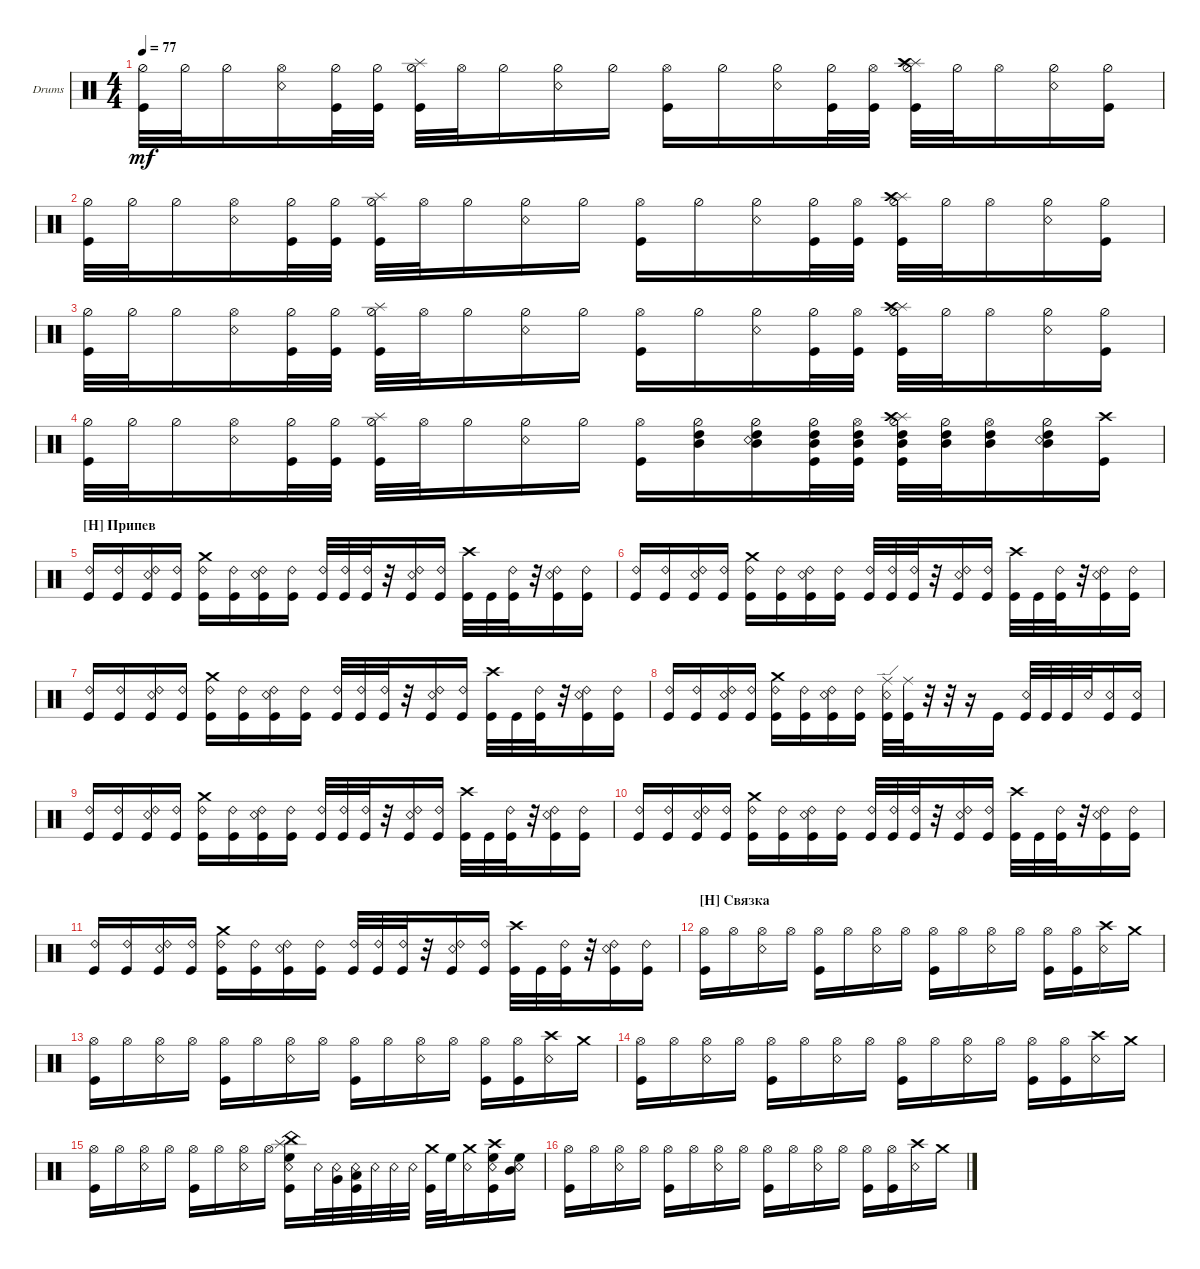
\bracketExtendMode groupsimilarinstruments
\firstSystemTrackNameOrientation horizontal
\otherSystemsTrackNameOrientation horizontal
\track ("Drumkit" "Drums") {instrument percussion}
\staff {score}
\articulation defaults
\ts (4 4)
\tempo 77
\clef neutral
\ks c
("Kick (hit)" "Hi-Hat (half)").32{dy mf} "Hi-Hat (half)".32 "Hi-Hat (half)".16 ("Snare (rim shot)" "Hi-Hat (open)").16 ("Kick (hit)" "Hi-Hat (half)").32 ("Kick (hit)" "Hi-Hat (half)").32 ("Kick (hit)" "Hi-Hat (half)" "Splash (hit)").32 "Hi-Hat (open)".32 "Hi-Hat (half)".16 ("Snare (rim shot)" "Hi-Hat (half)").16 "Hi-Hat (half)".16 ("Kick (hit)" "Hi-Hat (open)").16 "Hi-Hat (half)".16 ("Snare (rim shot)" "Hi-Hat (half)").16 ("Kick (hit)" "Hi-Hat (half)").32 ("Kick (hit)" "Hi-Hat (open)").32 ("Kick (hit)" "Hi-Hat (half)" "Splash (hit)" "Crash high (hit)").32 "Hi-Hat (half)".32 "Hi-Hat (open)".16 ("Snare (rim shot)" "Hi-Hat (half)").16 ("Kick (hit)" "Hi-Hat (half)").16 |
("Kick (hit)" "Hi-Hat (half)").32 "Hi-Hat (half)".32 "Hi-Hat (half)".16 ("Snare (rim shot)" "Hi-Hat (open)").16 ("Kick (hit)" "Hi-Hat (half)").32 ("Kick (hit)" "Hi-Hat (half)").32 ("Kick (hit)" "Hi-Hat (half)" "Splash (hit)").32 "Hi-Hat (open)".32 "Hi-Hat (half)".16 ("Snare (rim shot)" "Hi-Hat (half)").16 "Hi-Hat (half)".16 ("Kick (hit)" "Hi-Hat (open)").16 "Hi-Hat (half)".16 ("Snare (rim shot)" "Hi-Hat (half)").16 ("Kick (hit)" "Hi-Hat (half)").32 ("Kick (hit)" "Hi-Hat (open)").32 ("Kick (hit)" "Hi-Hat (half)" "Splash (hit)" "Crash high (hit)").32 "Hi-Hat (half)".32 "Hi-Hat (open)".16 ("Snare (rim shot)" "Hi-Hat (half)").16 ("Kick (hit)" "Hi-Hat (half)").16 |
("Kick (hit)" "Hi-Hat (half)").32 "Hi-Hat (half)".32 "Hi-Hat (half)".16 ("Snare (rim shot)" "Hi-Hat (open)").16 ("Kick (hit)" "Hi-Hat (half)").32 ("Kick (hit)" "Hi-Hat (half)").32 ("Kick (hit)" "Hi-Hat (half)" "Splash (hit)").32 "Hi-Hat (open)".32 "Hi-Hat (half)".16 ("Snare (rim shot)" "Hi-Hat (half)").16 "Hi-Hat (half)".16 ("Kick (hit)" "Hi-Hat (open)").16 "Hi-Hat (half)".16 ("Snare (rim shot)" "Hi-Hat (half)").16 ("Kick (hit)" "Hi-Hat (half)").32 ("Kick (hit)" "Hi-Hat (open)").32 ("Kick (hit)" "Hi-Hat (half)" "Splash (hit)" "Crash high (hit)").32 "Hi-Hat (half)".32 "Hi-Hat (open)".16 ("Snare (rim shot)" "Hi-Hat (half)").16 ("Kick (hit)" "Hi-Hat (half)").16 |
("Kick (hit)" "Hi-Hat (half)").32 "Hi-Hat (half)".32 "Hi-Hat (half)".16 ("Snare (rim shot)" "Hi-Hat (open)").16 ("Kick (hit)" "Hi-Hat (half)").32 ("Kick (hit)" "Hi-Hat (half)").32 ("Kick (hit)" "Hi-Hat (half)" "Splash (hit)").32 "Hi-Hat (open)".32 "Hi-Hat (half)".16 ("Snare (rim shot)" "Hi-Hat (half)").16 "Hi-Hat (half)".16 ("Kick (hit)" "Hi-Hat (open)").16 ("Hi-Hat (half)" "Mid Tom (hit)" "High Tom (hit)").16 ("Snare (rim shot)" "Hi-Hat (half)" "Mid Tom (hit)" "High Tom (hit)").16 ("Kick (hit)" "Hi-Hat (half)" "Mid Tom (hit)" "High Tom (hit)").32 ("Kick (hit)" "Hi-Hat (open)" "Mid Tom (hit)" "High Tom (hit)").32 ("Kick (hit)" "Hi-Hat (half)" "Splash (hit)" "Crash high (hit)" "Mid Tom (hit)" "High Tom (hit)").32 ("Hi-Hat (half)" "Mid Tom (hit)" "High Tom (hit)").32 ("Hi-Hat (open)" "Mid Tom (hit)" "High Tom (hit)").16 ("Snare (rim shot)" "Hi-Hat (half)" "Mid Tom (hit)" "High Tom (hit)").16 ("Kick (hit)" "Crash high (hit)").16 |
\section ("H" "Припев")
("Kick (hit)" "Ride (bell) 2").16 ("Kick (hit)" "Ride (bell) 2").16 ("Snare (rim shot)" "Kick (hit)" "Ride (bell) 2").16 ("Kick (hit)" "Ride (bell) 2").16 ("Kick (hit)" "Ride (bell) 2" "Crash medium (hit)").16 ("Kick (hit)" "Ride (bell) 2").16 ("Snare (rim shot)" "Kick (hit)" "Ride (bell) 2").16 ("Kick (hit)" "Ride (bell) 2").16 ("Kick (hit)" "Ride (bell) 2").32 ("Kick (hit)" "Ride (bell) 2").32 ("Kick (hit)" "Ride (bell) 2").32 r.32 ("Snare (rim shot)" "Kick (hit)" "Ride (bell) 2").16 ("Kick (hit)" "Ride (bell) 2").16 ("Kick (hit)" "Crash high (hit)").32 "Kick (hit)".32 ("Kick (hit)" "Ride (bell) 2").32 r.32 ("Snare (rim shot)" "Kick (hit)" "Ride (bell) 2").16 ("Kick (hit)" "Ride (bell) 2").16 |
("Kick (hit)" "Ride (bell) 2").16 ("Kick (hit)" "Ride (bell) 2").16 ("Snare (rim shot)" "Kick (hit)" "Ride (bell) 2").16 ("Kick (hit)" "Ride (bell) 2").16 ("Kick (hit)" "Ride (bell) 2" "Crash medium (hit)").16 ("Kick (hit)" "Ride (bell) 2").16 ("Snare (rim shot)" "Kick (hit)" "Ride (bell) 2").16 ("Kick (hit)" "Ride (bell) 2").16 ("Kick (hit)" "Ride (bell) 2").32 ("Kick (hit)" "Ride (bell) 2").32 ("Kick (hit)" "Ride (bell) 2").32 r.32 ("Snare (rim shot)" "Kick (hit)" "Ride (bell) 2").16 ("Kick (hit)" "Ride (bell) 2").16 ("Kick (hit)" "Crash high (hit)").32 "Kick (hit)".32 ("Kick (hit)" "Ride (bell) 2").32 r.32 ("Snare (rim shot)" "Kick (hit)" "Ride (bell) 2").16 ("Kick (hit)" "Ride (bell) 2").16 |
("Kick (hit)" "Ride (bell) 2").16 ("Kick (hit)" "Ride (bell) 2").16 ("Snare (rim shot)" "Kick (hit)" "Ride (bell) 2").16 ("Kick (hit)" "Ride (bell) 2").16 ("Kick (hit)" "Ride (bell) 2" "Crash medium (hit)").16 ("Kick (hit)" "Ride (bell) 2").16 ("Snare (rim shot)" "Kick (hit)" "Ride (bell) 2").16 ("Kick (hit)" "Ride (bell) 2").16 ("Kick (hit)" "Ride (bell) 2").32 ("Kick (hit)" "Ride (bell) 2").32 ("Kick (hit)" "Ride (bell) 2").32 r.32 ("Snare (rim shot)" "Kick (hit)" "Ride (bell) 2").16 ("Kick (hit)" "Ride (bell) 2").16 ("Kick (hit)" "Crash high (hit)").32 "Kick (hit)".32 ("Kick (hit)" "Ride (bell) 2").32 r.32 ("Snare (rim shot)" "Kick (hit)" "Ride (bell) 2").16 ("Kick (hit)" "Ride (bell) 2").16 |
("Kick (hit)" "Ride (bell) 2").16 ("Kick (hit)" "Ride (bell) 2").16 ("Snare (rim shot)" "Kick (hit)" "Ride (bell) 2").16 ("Kick (hit)" "Ride (bell) 2").16 ("Kick (hit)" "Ride (bell) 2" "Crash medium (hit)").16 ("Kick (hit)" "Ride (bell) 2").16 ("Snare (rim shot)" "Kick (hit)" "Ride (bell) 2").16 ("Kick (hit)" "Ride (bell) 2").16 ("Kick (hit)" "Ride (edge)" "Snare (rim shot)").32 ("Kick (hit)" "Ride (middle)").32 r.32 r.32 r.16 "Kick (hit)".16 ("Kick (hit)" "Snare (rim shot)").32 "Kick (hit)".32 "Kick (hit)".32 "Snare (rim shot)".32 ("Snare (rim shot)" "Kick (hit)").16 ("Kick (hit)" "Snare (rim shot)").16 |
("Kick (hit)" "Ride (bell) 2").16 ("Kick (hit)" "Ride (bell) 2").16 ("Snare (rim shot)" "Kick (hit)" "Ride (bell) 2").16 ("Kick (hit)" "Ride (bell) 2").16 ("Kick (hit)" "Ride (bell) 2" "Crash medium (hit)").16 ("Kick (hit)" "Ride (bell) 2").16 ("Snare (rim shot)" "Kick (hit)" "Ride (bell) 2").16 ("Kick (hit)" "Ride (bell) 2").16 ("Kick (hit)" "Ride (bell) 2").32 ("Kick (hit)" "Ride (bell) 2").32 ("Kick (hit)" "Ride (bell) 2").32 r.32 ("Snare (rim shot)" "Kick (hit)" "Ride (bell) 2").16 ("Kick (hit)" "Ride (bell) 2").16 ("Kick (hit)" "Crash high (hit)").32 "Kick (hit)".32 ("Kick (hit)" "Ride (bell) 2").32 r.32 ("Snare (rim shot)" "Kick (hit)" "Ride (bell) 2").16 ("Kick (hit)" "Ride (bell) 2").16 |
("Kick (hit)" "Ride (bell) 2").16 ("Kick (hit)" "Ride (bell) 2").16 ("Snare (rim shot)" "Kick (hit)" "Ride (bell) 2").16 ("Kick (hit)" "Ride (bell) 2").16 ("Kick (hit)" "Ride (bell) 2" "Crash medium (hit)").16 ("Kick (hit)" "Ride (bell) 2").16 ("Snare (rim shot)" "Kick (hit)" "Ride (bell) 2").16 ("Kick (hit)" "Ride (bell) 2").16 ("Kick (hit)" "Ride (bell) 2").32 ("Kick (hit)" "Ride (bell) 2").32 ("Kick (hit)" "Ride (bell) 2").32 r.32 ("Snare (rim shot)" "Kick (hit)" "Ride (bell) 2").16 ("Kick (hit)" "Ride (bell) 2").16 ("Kick (hit)" "Crash high (hit)").32 "Kick (hit)".32 ("Kick (hit)" "Ride (bell) 2").32 r.32 ("Snare (rim shot)" "Kick (hit)" "Ride (bell) 2").16 ("Kick (hit)" "Ride (bell) 2").16 |
("Kick (hit)" "Ride (bell) 2").16 ("Kick (hit)" "Ride (bell) 2").16 ("Snare (rim shot)" "Kick (hit)" "Ride (bell) 2").16 ("Kick (hit)" "Ride (bell) 2").16 ("Kick (hit)" "Ride (bell) 2" "Crash medium (hit)").16 ("Kick (hit)" "Ride (bell) 2").16 ("Snare (rim shot)" "Kick (hit)" "Ride (bell) 2").16 ("Kick (hit)" "Ride (bell) 2").16 ("Kick (hit)" "Ride (bell) 2").32 ("Kick (hit)" "Ride (bell) 2").32 ("Kick (hit)" "Ride (bell) 2").32 r.32 ("Snare (rim shot)" "Kick (hit)" "Ride (bell) 2").16 ("Kick (hit)" "Ride (bell) 2").16 ("Kick (hit)" "Crash high (hit)").32 "Kick (hit)".32 ("Kick (hit)" "Ride (bell) 2").32 r.32 ("Snare (rim shot)" "Kick (hit)" "Ride (bell) 2").16 ("Kick (hit)" "Ride (bell) 2").16 |
\section ("H" "Связка")
("Kick (hit)" "Hi-Hat (open)").16 "Hi-Hat (open)".16 ("Snare (rim shot)" "Hi-Hat (open)").16 "Hi-Hat (open)".16 ("Kick (hit)" "Hi-Hat (open)").16 "Hi-Hat (open)".16 ("Snare (rim shot)" "Hi-Hat (open)").16 "Hi-Hat (open)".16 ("Kick (hit)" "Hi-Hat (open)").16 "Hi-Hat (open)".16 ("Snare (rim shot)" "Hi-Hat (open)").16 "Hi-Hat (open)".16 ("Kick (hit)" "Hi-Hat (open)").16 ("Hi-Hat (open)" "Kick (hit)").16 ("Snare (rim shot)" "Crash high (hit)").16 "Crash medium (hit)".16 |
("Kick (hit)" "Hi-Hat (open)").16 "Hi-Hat (open)".16 ("Snare (rim shot)" "Hi-Hat (open)").16 "Hi-Hat (open)".16 ("Kick (hit)" "Hi-Hat (open)").16 "Hi-Hat (open)".16 ("Snare (rim shot)" "Hi-Hat (open)").16 "Hi-Hat (open)".16 ("Kick (hit)" "Hi-Hat (open)").16 "Hi-Hat (open)".16 ("Snare (rim shot)" "Hi-Hat (open)").16 "Hi-Hat (open)".16 ("Kick (hit)" "Hi-Hat (open)").16 ("Hi-Hat (open)" "Kick (hit)").16 ("Snare (rim shot)" "Crash high (hit)").16 "Crash medium (hit)".16 |
("Kick (hit)" "Hi-Hat (open)").16 "Hi-Hat (open)".16 ("Snare (rim shot)" "Hi-Hat (open)").16 "Hi-Hat (open)".16 ("Kick (hit)" "Hi-Hat (open)").16 "Hi-Hat (open)".16 ("Snare (rim shot)" "Hi-Hat (open)").16 "Hi-Hat (open)".16 ("Kick (hit)" "Hi-Hat (open)").16 "Hi-Hat (open)".16 ("Snare (rim shot)" "Hi-Hat (open)").16 "Hi-Hat (open)".16 ("Kick (hit)" "Hi-Hat (open)").16 ("Hi-Hat (open)" "Kick (hit)").16 ("Snare (rim shot)" "Crash high (hit)").16 "Crash medium (hit)".16 |
("Kick (hit)" "Hi-Hat (open)").16 "Hi-Hat (open)".16 ("Snare (rim shot)" "Hi-Hat (open)").16 "Hi-Hat (open)".16 ("Kick (hit)" "Hi-Hat (open)").16 "Hi-Hat (open)".16 ("Snare (rim shot)" "Hi-Hat (open)").16 "Hi-Hat (open)".16 ("Kick (hit)" "Snare (rim shot)" "High Floor Tom (hit)" "Splash (hit)" "China (hit)").16 "Snare (rim shot)".32 ("Very Low Tom (hit)" "Snare (rim shot)").32 ("Kick (hit)" "Low Tom (hit)" "Snare (rim shot)").32 "Snare (rim shot)".32 "Snare (rim shot)".32 "Snare (rim shot)".32 ("Kick (hit)" "Crash medium (hit)").32 "High Floor Tom (hit)".32 ("Snare (rim shot)" "Crash medium (hit)").16 ("Snare (rim shot)" "Kick (hit)" "Crash high (hit)" "High Floor Tom (hit)").16 ("Snare (rim shot)" "High Floor Tom (hit)" "Mid Tom (hit)").16 |
("Kick (hit)" "Hi-Hat (open)").16 "Hi-Hat (open)".16 ("Snare (rim shot)" "Hi-Hat (open)").16 "Hi-Hat (open)".16 ("Kick (hit)" "Hi-Hat (open)").16 "Hi-Hat (open)".16 ("Snare (rim shot)" "Hi-Hat (open)").16 "Hi-Hat (open)".16 ("Kick (hit)" "Hi-Hat (open)").16 "Hi-Hat (open)".16 ("Snare (rim shot)" "Hi-Hat (open)").16 "Hi-Hat (open)".16 ("Kick (hit)" "Hi-Hat (open)").16 ("Hi-Hat (open)" "Kick (hit)").16 ("Snare (rim shot)" "Crash high (hit)").16 "Crash medium (hit)".16
